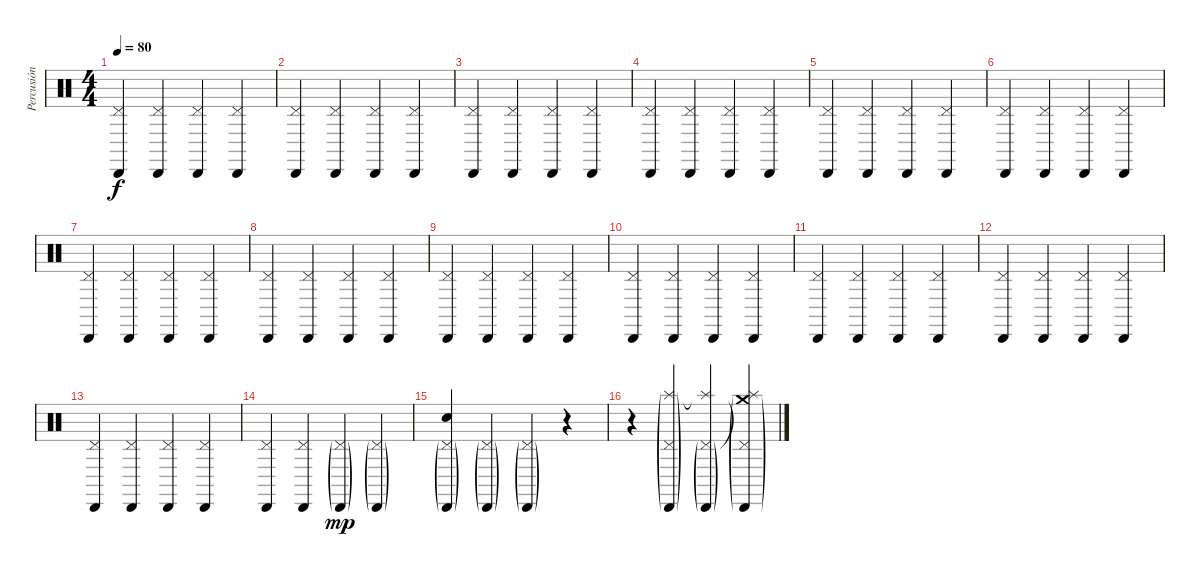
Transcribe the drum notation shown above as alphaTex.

\track ("Percusión" "Percusión") {instrument percussion}
\staff {score}
\articulation defaults
\ts (4 4)
\tempo 80
\clef neutral
\ks c
("Cabasa (hit)" "Pedal Hi-Hat (hit)").4{dy f} ("Cabasa (hit)" "Pedal Hi-Hat (hit)").4 ("Cabasa (hit)" "Pedal Hi-Hat (hit)").4 ("Cabasa (hit)" "Pedal Hi-Hat (hit)").4 |
("Cabasa (hit)" "Pedal Hi-Hat (hit)").4 ("Cabasa (hit)" "Pedal Hi-Hat (hit)").4 ("Cabasa (hit)" "Pedal Hi-Hat (hit)").4 ("Cabasa (hit)" "Pedal Hi-Hat (hit)").4 |
("Cabasa (hit)" "Pedal Hi-Hat (hit)").4 ("Cabasa (hit)" "Pedal Hi-Hat (hit)").4 ("Cabasa (hit)" "Pedal Hi-Hat (hit)").4 ("Cabasa (hit)" "Pedal Hi-Hat (hit)").4 |
("Cabasa (hit)" "Pedal Hi-Hat (hit)").4 ("Cabasa (hit)" "Pedal Hi-Hat (hit)").4 ("Cabasa (hit)" "Pedal Hi-Hat (hit)").4 ("Cabasa (hit)" "Pedal Hi-Hat (hit)").4 |
("Cabasa (hit)" "Pedal Hi-Hat (hit)").4 ("Cabasa (hit)" "Pedal Hi-Hat (hit)").4 ("Cabasa (hit)" "Pedal Hi-Hat (hit)").4 ("Cabasa (hit)" "Pedal Hi-Hat (hit)").4 |
("Cabasa (hit)" "Pedal Hi-Hat (hit)").4 ("Cabasa (hit)" "Pedal Hi-Hat (hit)").4 ("Cabasa (hit)" "Pedal Hi-Hat (hit)").4 ("Cabasa (hit)" "Pedal Hi-Hat (hit)").4 |
("Cabasa (hit)" "Pedal Hi-Hat (hit)").4 ("Cabasa (hit)" "Pedal Hi-Hat (hit)").4 ("Cabasa (hit)" "Pedal Hi-Hat (hit)").4 ("Cabasa (hit)" "Pedal Hi-Hat (hit)").4 |
("Cabasa (hit)" "Pedal Hi-Hat (hit)").4 ("Cabasa (hit)" "Pedal Hi-Hat (hit)").4 ("Cabasa (hit)" "Pedal Hi-Hat (hit)").4 ("Cabasa (hit)" "Pedal Hi-Hat (hit)").4 |
("Cabasa (hit)" "Pedal Hi-Hat (hit)").4 ("Cabasa (hit)" "Pedal Hi-Hat (hit)").4 ("Cabasa (hit)" "Pedal Hi-Hat (hit)").4 ("Cabasa (hit)" "Pedal Hi-Hat (hit)").4 |
("Cabasa (hit)" "Pedal Hi-Hat (hit)").4 ("Cabasa (hit)" "Pedal Hi-Hat (hit)").4 ("Cabasa (hit)" "Pedal Hi-Hat (hit)").4 ("Cabasa (hit)" "Pedal Hi-Hat (hit)").4 |
("Cabasa (hit)" "Pedal Hi-Hat (hit)").4 ("Cabasa (hit)" "Pedal Hi-Hat (hit)").4 ("Cabasa (hit)" "Pedal Hi-Hat (hit)").4 ("Cabasa (hit)" "Pedal Hi-Hat (hit)").4 |
("Cabasa (hit)" "Pedal Hi-Hat (hit)").4 ("Cabasa (hit)" "Pedal Hi-Hat (hit)").4 ("Cabasa (hit)" "Pedal Hi-Hat (hit)").4 ("Cabasa (hit)" "Pedal Hi-Hat (hit)").4 |
("Cabasa (hit)" "Pedal Hi-Hat (hit)").4 ("Cabasa (hit)" "Pedal Hi-Hat (hit)").4 ("Cabasa (hit)" "Pedal Hi-Hat (hit)").4 ("Cabasa (hit)" "Pedal Hi-Hat (hit)").4 |
("Cabasa (hit)" "Pedal Hi-Hat (hit)").4 ("Cabasa (hit)" "Pedal Hi-Hat (hit)").4 ("Cabasa (hit)"{g} "Pedal Hi-Hat (hit)"{g}).4{dy mp} ("Cabasa (hit)"{g} "Pedal Hi-Hat (hit)"{g}).4 |
("Cabasa (hit)"{g} "Snare (hit)" "Pedal Hi-Hat (hit)"{g}).4 ("Cabasa (hit)"{g} "Pedal Hi-Hat (hit)"{g}).4 ("Cabasa (hit)"{g} "Pedal Hi-Hat (hit)"{g}).4 r.4 |
r.4 ("Cabasa (hit)"{g} "Splash (hit)"{g} "Pedal Hi-Hat (hit)"{g}).4 ("Cabasa (hit)"{g} "Splash (hit)"{t} "Pedal Hi-Hat (hit)"{g}).4 ("Cabasa (hit)"{g} "Crash medium (hit)"{g} "Splash (hit)"{t} "Pedal Hi-Hat (hit)"{g}).4
